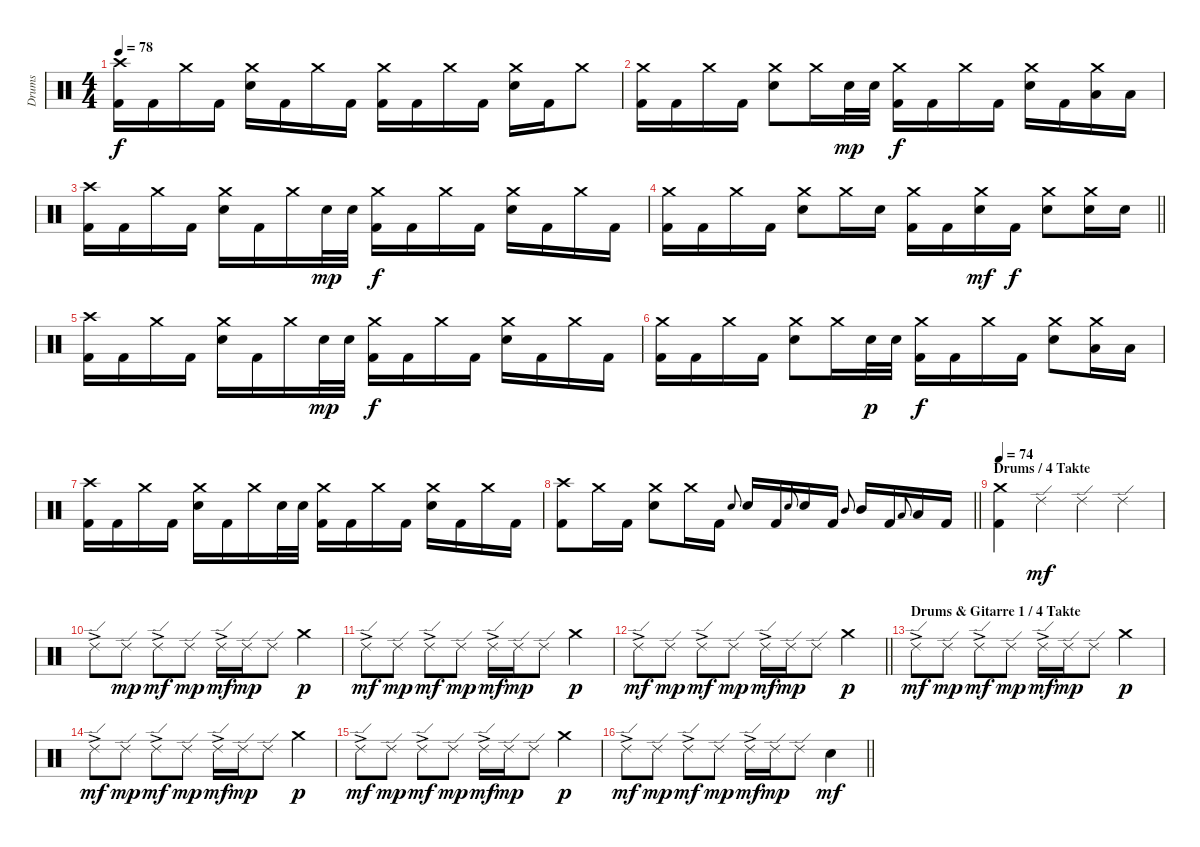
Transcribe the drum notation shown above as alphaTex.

\track ("Drums" "Drums") {instrument percussion}
\staff {score}
\articulation defaults
\ts (4 4)
\tempo 78
\clef neutral
\ks c
("Crash high (hit)" "Kick (hit) 2").16{dy f} "Kick (hit) 2".16 "Crash medium (hit)".16 "Kick (hit) 2".16 ("Crash medium (hit)" "Electric Snare (hit)").16 "Kick (hit) 2".16 "Crash medium (hit)".16 "Kick (hit) 2".16 ("Crash medium (hit)" "Kick (hit) 2").16 "Kick (hit) 2".16 "Crash medium (hit)".16 "Kick (hit) 2".16 ("Crash medium (hit)" "Electric Snare (hit)").16 "Kick (hit) 2".16 "Crash medium (hit)".8 |
("Crash medium (hit)" "Kick (hit) 2").16 "Kick (hit) 2".16 "Crash medium (hit)".16 "Kick (hit) 2".16 ("Crash medium (hit)" "Electric Snare (hit)").8 "Crash medium (hit)".16 "Electric Snare (hit)".32{dy mp} "Electric Snare (hit)".32 ("Crash medium (hit)" "Kick (hit) 2").16{dy f} "Kick (hit) 2".16 "Crash medium (hit)".16 "Kick (hit) 2".16 ("Crash medium (hit)" "Electric Snare (hit)").16 "Kick (hit) 2".16 ("Crash medium (hit)" "Low Tom (hit)").16 "Low Tom (hit)".16 |
("Crash high (hit)" "Kick (hit) 2").16 "Kick (hit) 2".16 "Crash medium (hit)".16 "Kick (hit) 2".16 ("Crash medium (hit)" "Electric Snare (hit)").16 "Kick (hit) 2".16 "Crash medium (hit)".16 "Electric Snare (hit)".32{dy mp} "Electric Snare (hit)".32 ("Crash medium (hit)" "Kick (hit) 2").16{dy f} "Kick (hit) 2".16 "Crash medium (hit)".16 "Kick (hit) 2".16 ("Crash medium (hit)" "Electric Snare (hit)").16 "Kick (hit) 2".16 "Crash medium (hit)".16 "Kick (hit) 2".16 |
\barLineRight lightlight
("Crash medium (hit)" "Kick (hit) 2").16 "Kick (hit) 2".16 "Crash medium (hit)".16 "Kick (hit) 2".16 ("Crash medium (hit)" "Electric Snare (hit)").8 "Crash medium (hit)".16 "Electric Snare (hit)".16 ("Crash medium (hit)" "Kick (hit) 2").16 "Kick (hit) 2".16 ("Crash medium (hit)" "Electric Snare (hit)").16{dy mf} "Kick (hit) 2".16{dy f} ("Crash medium (hit)" "Electric Snare (hit)").8 ("Crash medium (hit)" "Electric Snare (hit)").16 "Electric Snare (hit)".16 |
("Crash high (hit)" "Kick (hit) 2").16 "Kick (hit) 2".16 "Crash medium (hit)".16 "Kick (hit) 2".16 ("Crash medium (hit)" "Electric Snare (hit)").16 "Kick (hit) 2".16 "Crash medium (hit)".16 "Electric Snare (hit)".32{dy mp} "Electric Snare (hit)".32 ("Crash medium (hit)" "Kick (hit) 2").16{dy f} "Kick (hit) 2".16 "Crash medium (hit)".16 "Kick (hit) 2".16 ("Crash medium (hit)" "Electric Snare (hit)").16 "Kick (hit) 2".16 "Crash medium (hit)".16 "Kick (hit) 2".16 |
("Crash medium (hit)" "Kick (hit) 2").16 "Kick (hit) 2".16 "Crash medium (hit)".16 "Kick (hit) 2".16 ("Crash medium (hit)" "Electric Snare (hit)").8 "Crash medium (hit)".16 "Electric Snare (hit)".32{dy p} "Electric Snare (hit)".32 ("Crash medium (hit)" "Kick (hit) 2").16{dy f} "Kick (hit) 2".16 "Crash medium (hit)".16 "Kick (hit) 2".16 ("Crash medium (hit)" "Electric Snare (hit)").8 ("Crash medium (hit)" "Low Tom (hit)").16 "Low Tom (hit)".16 |
("Crash high (hit)" "Kick (hit) 2").16 "Kick (hit) 2".16 "Crash medium (hit)".16 "Kick (hit) 2".16 ("Crash medium (hit)" "Electric Snare (hit)").16 "Kick (hit) 2".16 "Crash medium (hit)".16 "Electric Snare (hit)".32 "Electric Snare (hit)".32 ("Crash medium (hit)" "Kick (hit) 2").16 "Kick (hit) 2".16 "Crash medium (hit)".16 "Kick (hit) 2".16 ("Crash medium (hit)" "Electric Snare (hit)").16 "Kick (hit) 2".16 "Crash medium (hit)".16 "Kick (hit) 2".16 |
\barLineRight lightlight
("Crash high (hit)" "Kick (hit) 2").8 "Crash medium (hit)".16 "Kick (hit) 2".16 ("Crash medium (hit)" "Electric Snare (hit)").8 "Crash medium (hit)".16 "Kick (hit) 2".16 "Electric Snare (hit)".8{gr onbeat} "Electric Snare (hit)".16 "Kick (hit) 2".16 "Electric Snare (hit)".8{gr onbeat} "Electric Snare (hit)".16 "Kick (hit) 2".16 "Mid Tom (hit)".8{gr onbeat} "Mid Tom (hit)".16 "Kick (hit) 2".16 "Low Tom (hit)".8{gr onbeat} "Low Tom (hit)".16 "Kick (hit) 2".16 |
\section ("" "Drums / 4 Takte")
\tempo 74
("Crash medium (hit)" "Kick (hit) 2").4 "Ride (edge) 2".4{dy mf} "Ride (edge) 2".4 "Ride (edge) 2".4 |
"Ride (edge) 2"{ac}.8 "Ride (edge) 2".8{dy mp} "Ride (edge) 2"{ac}.8{dy mf} "Ride (edge) 2".8{dy mp} "Ride (edge) 2"{ac}.16{dy mf} "Ride (edge) 2".16{dy mp} "Ride (edge) 2".8 "Crash medium (hit)".4{dy p} |
"Ride (edge) 2"{ac}.8{dy mf} "Ride (edge) 2".8{dy mp} "Ride (edge) 2"{ac}.8{dy mf} "Ride (edge) 2".8{dy mp} "Ride (edge) 2"{ac}.16{dy mf} "Ride (edge) 2".16{dy mp} "Ride (edge) 2".8 "Crash medium (hit)".4{dy p} |
\barLineRight lightlight "Ride (edge) 2"{ac}.8{dy mf} "Ride (edge) 2".8{dy mp} "Ride (edge) 2"{ac}.8{dy mf} "Ride (edge) 2".8{dy mp} "Ride (edge) 2"{ac}.16{dy mf} "Ride (edge) 2".16{dy mp} "Ride (edge) 2".8 "Crash medium (hit)".4{dy p}
|
\section ("" "Drums & Gitarre 1 / 4 Takte")
"Ride (edge) 2"{ac}.8{dy mf} "Ride (edge) 2".8{dy mp} "Ride (edge) 2"{ac}.8{dy mf} "Ride (edge) 2".8{dy mp} "Ride (edge) 2"{ac}.16{dy mf} "Ride (edge) 2".16{dy mp} "Ride (edge) 2".8 "Crash medium (hit)".4{dy p} |
"Ride (edge) 2"{ac}.8{dy mf} "Ride (edge) 2".8{dy mp} "Ride (edge) 2"{ac}.8{dy mf} "Ride (edge) 2".8{dy mp} "Ride (edge) 2"{ac}.16{dy mf} "Ride (edge) 2".16{dy mp} "Ride (edge) 2".8 "Crash medium (hit)".4{dy p} |
"Ride (edge) 2"{ac}.8{dy mf} "Ride (edge) 2".8{dy mp} "Ride (edge) 2"{ac}.8{dy mf} "Ride (edge) 2".8{dy mp} "Ride (edge) 2"{ac}.16{dy mf} "Ride (edge) 2".16{dy mp} "Ride (edge) 2".8 "Crash medium (hit)".4{dy p} |
\barLineRight lightlight "Ride (edge) 2"{ac}.8{dy mf} "Ride (edge) 2".8{dy mp} "Ride (edge) 2"{ac}.8{dy mf} "Ride (edge) 2".8{dy mp} "Ride (edge) 2"{ac}.16{dy mf} "Ride (edge) 2".16{dy mp} "Ride (edge) 2".8 "Electric Snare (hit)".4{dy mf}
